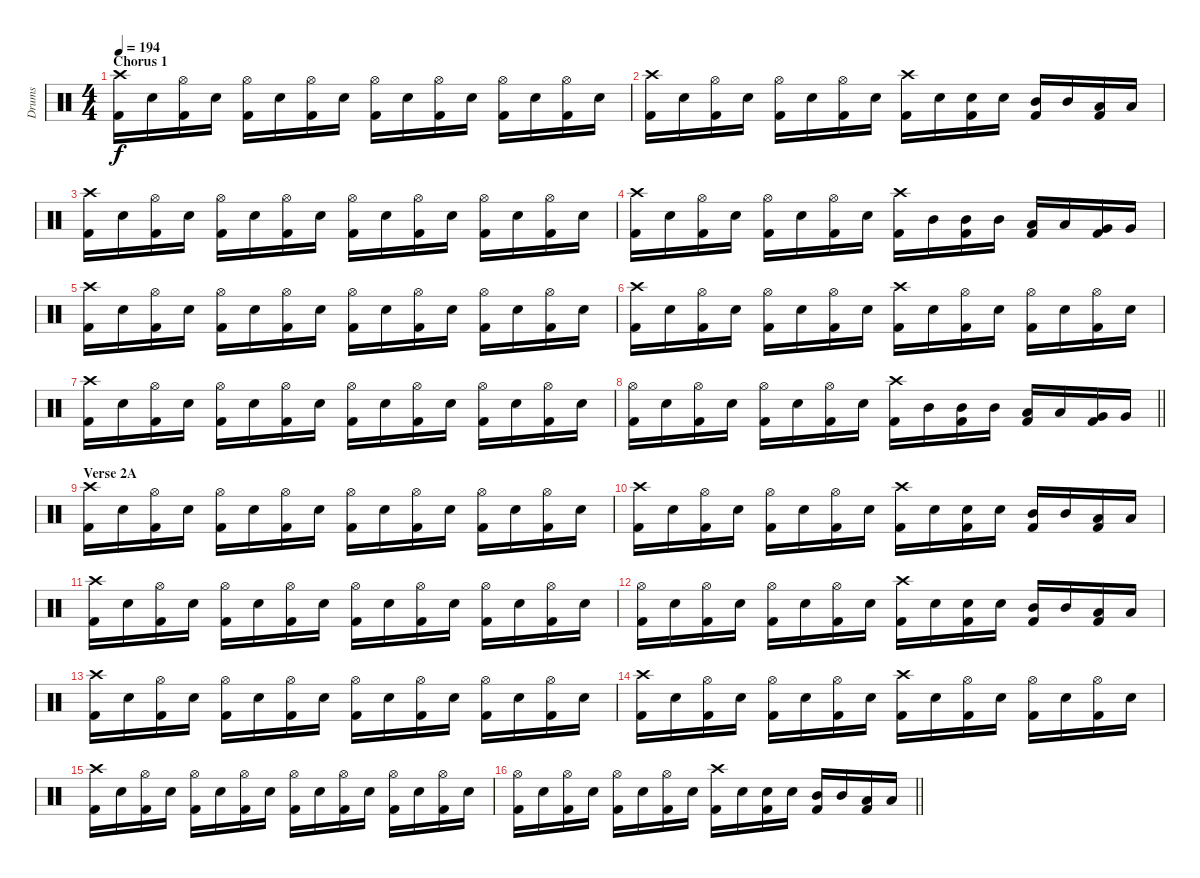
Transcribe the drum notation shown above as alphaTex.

\track ("Drums" "Drums") {instrument percussion}
\staff {score}
\articulation defaults
\ts (4 4)
\section ("" "Chorus 1")
\tempo 194
\clef neutral
\ks c
("Crash high (hit)" "Kick (hit) 2").16{dy f} "Electric Snare (hit)".16 ("Hi-Hat (open)" "Kick (hit) 2").16 "Electric Snare (hit)".16 ("Hi-Hat (open)" "Kick (hit) 2").16 "Electric Snare (hit)".16 ("Hi-Hat (open)" "Kick (hit) 2").16 "Electric Snare (hit)".16 ("Hi-Hat (open)" "Kick (hit) 2").16 "Electric Snare (hit)".16 ("Hi-Hat (open)" "Kick (hit) 2").16 "Electric Snare (hit)".16 ("Hi-Hat (open)" "Kick (hit) 2").16 "Electric Snare (hit)".16 ("Hi-Hat (open)" "Kick (hit) 2").16 "Electric Snare (hit)".16 |
("Crash high (hit)" "Kick (hit) 2").16 "Electric Snare (hit)".16 ("Hi-Hat (open)" "Kick (hit) 2").16 "Electric Snare (hit)".16 ("Hi-Hat (open)" "Kick (hit) 2").16 "Electric Snare (hit)".16 ("Hi-Hat (open)" "Kick (hit) 2").16 "Electric Snare (hit)".16 ("Crash high (hit)" "Kick (hit) 2").16 "Electric Snare (hit)".16 ("Electric Snare (hit)" "Kick (hit) 2").16 "Electric Snare (hit)".16 ("Mid Tom (hit)" "Kick (hit) 2").16 "Mid Tom (hit)".16 ("Low Tom (hit)" "Kick (hit) 2").16 "Low Tom (hit)".16 |
("Crash high (hit)" "Kick (hit) 2").16 "Electric Snare (hit)".16 ("Hi-Hat (open)" "Kick (hit) 2").16 "Electric Snare (hit)".16 ("Hi-Hat (open)" "Kick (hit) 2").16 "Electric Snare (hit)".16 ("Hi-Hat (open)" "Kick (hit) 2").16 "Electric Snare (hit)".16 ("Hi-Hat (open)" "Kick (hit) 2").16 "Electric Snare (hit)".16 ("Hi-Hat (open)" "Kick (hit) 2").16 "Electric Snare (hit)".16 ("Hi-Hat (open)" "Kick (hit) 2").16 "Electric Snare (hit)".16 ("Hi-Hat (open)" "Kick (hit) 2").16 "Electric Snare (hit)".16 |
("Crash high (hit)" "Kick (hit) 2").16 "Electric Snare (hit)".16 ("Hi-Hat (open)" "Kick (hit) 2").16 "Electric Snare (hit)".16 ("Hi-Hat (open)" "Kick (hit) 2").16 "Electric Snare (hit)".16 ("Hi-Hat (open)" "Kick (hit) 2").16 "Electric Snare (hit)".16 ("Crash high (hit)" "Kick (hit) 2").16 "Mid Tom (hit)".16 ("Mid Tom (hit)" "Kick (hit) 2").16 "Mid Tom (hit)".16 ("Low Tom (hit)" "Kick (hit) 2").16 "Low Tom (hit)".16 ("Very Low Tom (hit)" "Kick (hit) 2").16 "Very Low Tom (hit)".16 |
("Crash high (hit)" "Kick (hit) 2").16 "Electric Snare (hit)".16 ("Hi-Hat (open)" "Kick (hit) 2").16 "Electric Snare (hit)".16 ("Hi-Hat (open)" "Kick (hit) 2").16 "Electric Snare (hit)".16 ("Hi-Hat (open)" "Kick (hit) 2").16 "Electric Snare (hit)".16 ("Hi-Hat (open)" "Kick (hit) 2").16 "Electric Snare (hit)".16 ("Hi-Hat (open)" "Kick (hit) 2").16 "Electric Snare (hit)".16 ("Hi-Hat (open)" "Kick (hit) 2").16 "Electric Snare (hit)".16 ("Hi-Hat (open)" "Kick (hit) 2").16 "Electric Snare (hit)".16 |
("Crash high (hit)" "Kick (hit) 2").16 "Electric Snare (hit)".16 ("Hi-Hat (open)" "Kick (hit) 2").16 "Electric Snare (hit)".16 ("Hi-Hat (open)" "Kick (hit) 2").16 "Electric Snare (hit)".16 ("Hi-Hat (open)" "Kick (hit) 2").16 "Electric Snare (hit)".16 ("Crash high (hit)" "Kick (hit) 2").16 "Electric Snare (hit)".16 ("Hi-Hat (open)" "Kick (hit) 2").16 "Electric Snare (hit)".16 ("Hi-Hat (open)" "Kick (hit) 2").16 "Electric Snare (hit)".16 ("Hi-Hat (open)" "Kick (hit) 2").16 "Electric Snare (hit)".16 |
("Crash high (hit)" "Kick (hit) 2").16 "Electric Snare (hit)".16 ("Hi-Hat (open)" "Kick (hit) 2").16 "Electric Snare (hit)".16 ("Hi-Hat (open)" "Kick (hit) 2").16 "Electric Snare (hit)".16 ("Hi-Hat (open)" "Kick (hit) 2").16 "Electric Snare (hit)".16 ("Hi-Hat (open)" "Kick (hit) 2").16 "Electric Snare (hit)".16 ("Hi-Hat (open)" "Kick (hit) 2").16 "Electric Snare (hit)".16 ("Hi-Hat (open)" "Kick (hit) 2").16 "Electric Snare (hit)".16 ("Hi-Hat (open)" "Kick (hit) 2").16 "Electric Snare (hit)".16 |
\barLineRight lightlight
("Hi-Hat (open)" "Kick (hit) 2").16 "Electric Snare (hit)".16 ("Hi-Hat (open)" "Kick (hit) 2").16 "Electric Snare (hit)".16 ("Hi-Hat (open)" "Kick (hit) 2").16 "Electric Snare (hit)".16 ("Hi-Hat (open)" "Kick (hit) 2").16 "Electric Snare (hit)".16 ("Crash high (hit)" "Kick (hit) 2").16 "Mid Tom (hit)".16 ("Mid Tom (hit)" "Kick (hit) 2").16 "Mid Tom (hit)".16 ("Low Tom (hit)" "Kick (hit) 2").16 "Low Tom (hit)".16 ("Very Low Tom (hit)" "Kick (hit) 2").16 "Very Low Tom (hit)".16 |
\section ("" "Verse 2A")
("Crash high (hit)" "Kick (hit) 2").16 "Electric Snare (hit)".16 ("Hi-Hat (open)" "Kick (hit) 2").16 "Electric Snare (hit)".16 ("Hi-Hat (open)" "Kick (hit) 2").16 "Electric Snare (hit)".16 ("Hi-Hat (open)" "Kick (hit) 2").16 "Electric Snare (hit)".16 ("Hi-Hat (open)" "Kick (hit) 2").16 "Electric Snare (hit)".16 ("Hi-Hat (open)" "Kick (hit) 2").16 "Electric Snare (hit)".16 ("Hi-Hat (open)" "Kick (hit) 2").16 "Electric Snare (hit)".16 ("Hi-Hat (open)" "Kick (hit) 2").16 "Electric Snare (hit)".16 |
("Crash high (hit)" "Kick (hit) 2").16 "Electric Snare (hit)".16 ("Hi-Hat (open)" "Kick (hit) 2").16 "Electric Snare (hit)".16 ("Hi-Hat (open)" "Kick (hit) 2").16 "Electric Snare (hit)".16 ("Hi-Hat (open)" "Kick (hit) 2").16 "Electric Snare (hit)".16 ("Crash high (hit)" "Kick (hit) 2").16 "Electric Snare (hit)".16 ("Electric Snare (hit)" "Kick (hit) 2").16 "Electric Snare (hit)".16 ("Mid Tom (hit)" "Kick (hit) 2").16 "Mid Tom (hit)".16 ("Low Tom (hit)" "Kick (hit) 2").16 "Low Tom (hit)".16 |
("Crash high (hit)" "Kick (hit) 2").16 "Electric Snare (hit)".16 ("Hi-Hat (open)" "Kick (hit) 2").16 "Electric Snare (hit)".16 ("Hi-Hat (open)" "Kick (hit) 2").16 "Electric Snare (hit)".16 ("Hi-Hat (open)" "Kick (hit) 2").16 "Electric Snare (hit)".16 ("Hi-Hat (open)" "Kick (hit) 2").16 "Electric Snare (hit)".16 ("Hi-Hat (open)" "Kick (hit) 2").16 "Electric Snare (hit)".16 ("Hi-Hat (open)" "Kick (hit) 2").16 "Electric Snare (hit)".16 ("Hi-Hat (open)" "Kick (hit) 2").16 "Electric Snare (hit)".16 |
("Hi-Hat (open)" "Kick (hit) 2").16 "Electric Snare (hit)".16 ("Hi-Hat (open)" "Kick (hit) 2").16 "Electric Snare (hit)".16 ("Hi-Hat (open)" "Kick (hit) 2").16 "Electric Snare (hit)".16 ("Hi-Hat (open)" "Kick (hit) 2").16 "Electric Snare (hit)".16 ("Crash high (hit)" "Kick (hit) 2").16 "Electric Snare (hit)".16 ("Electric Snare (hit)" "Kick (hit) 2").16 "Electric Snare (hit)".16 ("Mid Tom (hit)" "Kick (hit) 2").16 "Mid Tom (hit)".16 ("Low Tom (hit)" "Kick (hit) 2").16 "Low Tom (hit)".16 |
("Crash high (hit)" "Kick (hit) 2").16 "Electric Snare (hit)".16 ("Hi-Hat (open)" "Kick (hit) 2").16 "Electric Snare (hit)".16 ("Hi-Hat (open)" "Kick (hit) 2").16 "Electric Snare (hit)".16 ("Hi-Hat (open)" "Kick (hit) 2").16 "Electric Snare (hit)".16 ("Hi-Hat (open)" "Kick (hit) 2").16 "Electric Snare (hit)".16 ("Hi-Hat (open)" "Kick (hit) 2").16 "Electric Snare (hit)".16 ("Hi-Hat (open)" "Kick (hit) 2").16 "Electric Snare (hit)".16 ("Hi-Hat (open)" "Kick (hit) 2").16 "Electric Snare (hit)".16 |
("Crash high (hit)" "Kick (hit) 2").16 "Electric Snare (hit)".16 ("Hi-Hat (open)" "Kick (hit) 2").16 "Electric Snare (hit)".16 ("Hi-Hat (open)" "Kick (hit) 2").16 "Electric Snare (hit)".16 ("Hi-Hat (open)" "Kick (hit) 2").16 "Electric Snare (hit)".16 ("Crash high (hit)" "Kick (hit) 2").16 "Electric Snare (hit)".16 ("Hi-Hat (open)" "Kick (hit) 2").16 "Electric Snare (hit)".16 ("Hi-Hat (open)" "Kick (hit) 2").16 "Electric Snare (hit)".16 ("Hi-Hat (open)" "Kick (hit) 2").16 "Electric Snare (hit)".16 |
("Crash high (hit)" "Kick (hit) 2").16 "Electric Snare (hit)".16 ("Hi-Hat (open)" "Kick (hit) 2").16 "Electric Snare (hit)".16 ("Hi-Hat (open)" "Kick (hit) 2").16 "Electric Snare (hit)".16 ("Hi-Hat (open)" "Kick (hit) 2").16 "Electric Snare (hit)".16 ("Hi-Hat (open)" "Kick (hit) 2").16 "Electric Snare (hit)".16 ("Hi-Hat (open)" "Kick (hit) 2").16 "Electric Snare (hit)".16 ("Hi-Hat (open)" "Kick (hit) 2").16 "Electric Snare (hit)".16 ("Hi-Hat (open)" "Kick (hit) 2").16 "Electric Snare (hit)".16 |
\barLineRight lightlight
("Hi-Hat (open)" "Kick (hit) 2").16 "Electric Snare (hit)".16 ("Hi-Hat (open)" "Kick (hit) 2").16 "Electric Snare (hit)".16 ("Hi-Hat (open)" "Kick (hit) 2").16 "Electric Snare (hit)".16 ("Hi-Hat (open)" "Kick (hit) 2").16 "Electric Snare (hit)".16 ("Crash high (hit)" "Kick (hit) 2").16 "Electric Snare (hit)".16 ("Electric Snare (hit)" "Kick (hit) 2").16 "Electric Snare (hit)".16 ("Mid Tom (hit)" "Kick (hit) 2").16 "Mid Tom (hit)".16 ("Low Tom (hit)" "Kick (hit) 2").16 "Low Tom (hit)".16
